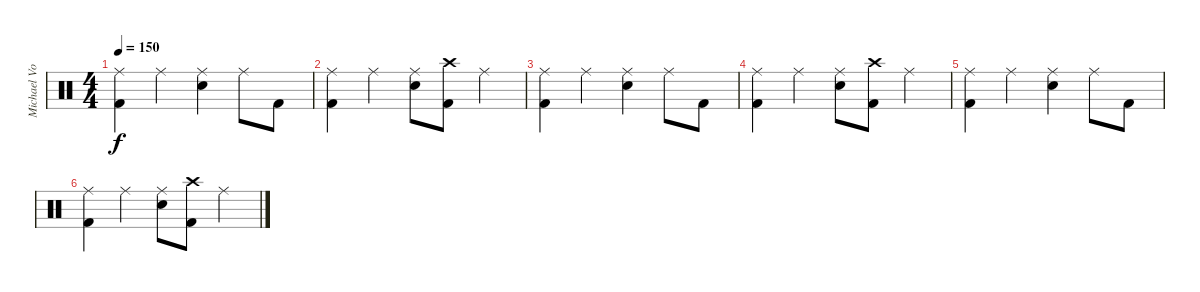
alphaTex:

\track ("Michael Von Knorring" "Michael Vo") {instrument percussion}
\staff {score}
\articulation defaults
\ts (4 4)
\tempo 150
\clef neutral
\ks c
("Ride (middle)" "Kick (hit) 2").4{dy f} "Ride (middle)".4 ("Ride (middle)" "Snare (hit) 2").4 "Ride (middle)".8 "Kick (hit) 2".8 |
("Ride (middle)" "Kick (hit) 2").4 "Ride (middle)".4 ("Ride (middle)" "Snare (hit) 2").8 ("Crash high (hit)" "Kick (hit) 2").8 "Ride (middle)".4 |
("Ride (middle)" "Kick (hit) 2").4 "Ride (middle)".4 ("Ride (middle)" "Snare (hit) 2").4 "Ride (middle)".8 "Kick (hit) 2".8 |
("Ride (middle)" "Kick (hit) 2").4 "Ride (middle)".4 ("Ride (middle)" "Snare (hit) 2").8 ("Crash high (hit)" "Kick (hit) 2").8 "Ride (middle)".4 |
("Ride (middle)" "Kick (hit) 2").4 "Ride (middle)".4 ("Ride (middle)" "Snare (hit) 2").4 "Ride (middle)".8 "Kick (hit) 2".8 |
("Ride (middle)" "Kick (hit) 2").4 "Ride (middle)".4 ("Ride (middle)" "Snare (hit) 2").8 ("Crash high (hit)" "Kick (hit) 2").8 "Ride (middle)".4
